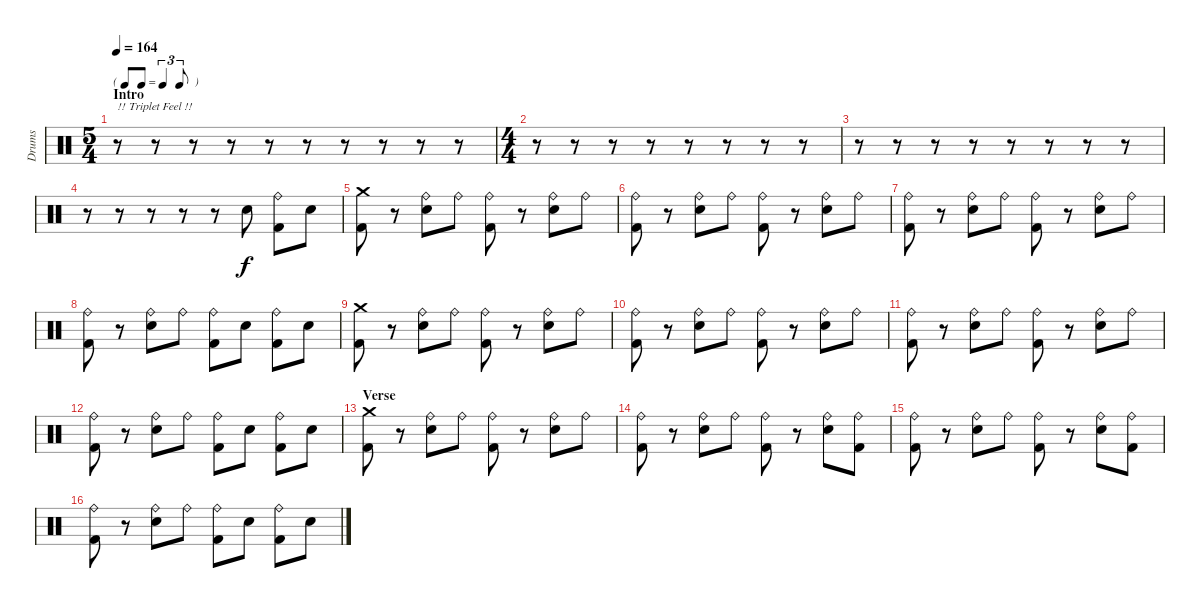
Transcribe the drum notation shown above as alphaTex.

\track ("Drums" "Drums") {instrument percussion}
\staff {score}
\articulation defaults
\ts (5 4)
\tf triplet8th
\section ("" "Intro")
\tempo 164
\clef neutral
\ks c
r.8{txt "!! Triplet Feel !!" dy f} r.8 r.8 r.8 r.8 r.8 r.8 r.8 r.8 r.8 |
\ts (4 4)
r.8 r.8 r.8 r.8 r.8 r.8 r.8 r.8 |
r.8 r.8 r.8 r.8 r.8 r.8 r.8 r.8 |
r.8 r.8 r.8 r.8 r.8 "Electric Snare (hit)".8 ("Ride (bell)" "Kick (hit) 2").8 "Electric Snare (hit)".8 |
("Crash medium (hit)" "Kick (hit) 2").8 r.8 ("Ride (bell)" "Electric Snare (hit)").8 "Ride (bell)".8 ("Ride (bell)" "Kick (hit) 2").8 r.8 ("Ride (bell)" "Electric Snare (hit)").8 "Ride (bell)".8 |
("Ride (bell)" "Kick (hit) 2").8 r.8 ("Ride (bell)" "Electric Snare (hit)").8 "Ride (bell)".8 ("Ride (bell)" "Kick (hit) 2").8 r.8 ("Ride (bell)" "Electric Snare (hit)").8 "Ride (bell)".8 |
("Ride (bell)" "Kick (hit) 2").8 r.8 ("Ride (bell)" "Electric Snare (hit)").8 "Ride (bell)".8 ("Ride (bell)" "Kick (hit) 2").8 r.8 ("Ride (bell)" "Electric Snare (hit)").8 "Ride (bell)".8 |
("Ride (bell)" "Kick (hit) 2").8 r.8 ("Ride (bell)" "Electric Snare (hit)").8 "Ride (bell)".8 ("Ride (bell)" "Kick (hit) 2").8 "Electric Snare (hit)".8 ("Ride (bell)" "Kick (hit) 2").8 "Electric Snare (hit)".8 |
("Crash medium (hit)" "Kick (hit) 2").8 r.8 ("Ride (bell)" "Electric Snare (hit)").8 "Ride (bell)".8 ("Ride (bell)" "Kick (hit) 2").8 r.8 ("Ride (bell)" "Electric Snare (hit)").8 "Ride (bell)".8 |
("Ride (bell)" "Kick (hit) 2").8 r.8 ("Ride (bell)" "Electric Snare (hit)").8 "Ride (bell)".8 ("Ride (bell)" "Kick (hit) 2").8 r.8 ("Ride (bell)" "Electric Snare (hit)").8 "Ride (bell)".8 |
("Ride (bell)" "Kick (hit) 2").8 r.8 ("Ride (bell)" "Electric Snare (hit)").8 "Ride (bell)".8 ("Ride (bell)" "Kick (hit) 2").8 r.8 ("Ride (bell)" "Electric Snare (hit)").8 "Ride (bell)".8 |
("Ride (bell)" "Kick (hit) 2").8 r.8 ("Ride (bell)" "Electric Snare (hit)").8 "Ride (bell)".8 ("Ride (bell)" "Kick (hit) 2").8 "Electric Snare (hit)".8 ("Ride (bell)" "Kick (hit) 2").8 "Electric Snare (hit)".8 |
\section ("" "Verse")
("Crash medium (hit)" "Kick (hit) 2").8 r.8 ("Ride (bell)" "Electric Snare (hit)").8 "Ride (bell)".8 ("Ride (bell)" "Kick (hit) 2").8 r.8 ("Ride (bell)" "Electric Snare (hit)").8 "Ride (bell)".8 |
("Ride (bell)" "Kick (hit) 2").8 r.8 ("Ride (bell)" "Electric Snare (hit)").8 "Ride (bell)".8 ("Ride (bell)" "Kick (hit) 2").8 r.8 ("Ride (bell)" "Electric Snare (hit)").8 ("Ride (bell)" "Kick (hit) 2").8 |
("Ride (bell)" "Kick (hit) 2").8 r.8 ("Ride (bell)" "Electric Snare (hit)").8 "Ride (bell)".8 ("Ride (bell)" "Kick (hit) 2").8 r.8 ("Ride (bell)" "Electric Snare (hit)").8 ("Ride (bell)" "Kick (hit) 2").8 |
("Ride (bell)" "Kick (hit) 2").8 r.8 ("Ride (bell)" "Electric Snare (hit)").8 "Ride (bell)".8 ("Ride (bell)" "Kick (hit) 2").8 "Electric Snare (hit)".8 ("Ride (bell)" "Kick (hit) 2").8 "Electric Snare (hit)".8
